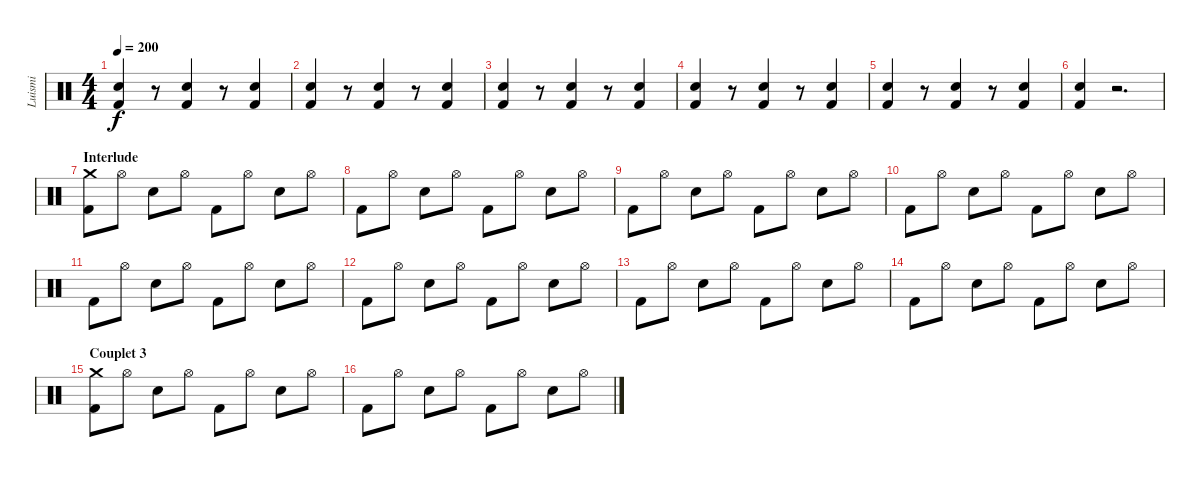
\track ("Luismi" "Luismi") {instrument percussion}
\staff {score}
\articulation defaults
\ts (4 4)
\tempo 200
\clef neutral
\ks c
("Snare (hit) 2" "Kick (hit) 2").4{dy f} r.8 ("Snare (hit) 2" "Kick (hit) 2").4 r.8 ("Snare (hit) 2" "Kick (hit) 2").4 |
("Snare (hit) 2" "Kick (hit) 2").4 r.8 ("Snare (hit) 2" "Kick (hit) 2").4 r.8 ("Snare (hit) 2" "Kick (hit) 2").4 |
("Snare (hit) 2" "Kick (hit) 2").4 r.8 ("Snare (hit) 2" "Kick (hit) 2").4 r.8 ("Snare (hit) 2" "Kick (hit) 2").4 |
("Snare (hit) 2" "Kick (hit) 2").4 r.8 ("Snare (hit) 2" "Kick (hit) 2").4 r.8 ("Snare (hit) 2" "Kick (hit) 2").4 |
("Snare (hit) 2" "Kick (hit) 2").4 r.8 ("Snare (hit) 2" "Kick (hit) 2").4 r.8 ("Snare (hit) 2" "Kick (hit) 2").4 |
("Snare (hit) 2" "Kick (hit) 2").4 r.2{d} |
\section ("" "Interlude")
("Crash medium (hit)" "Kick (hit) 2").8 "Hi-Hat (open)".8 "Snare (hit) 2".8 "Hi-Hat (open)".8 "Kick (hit) 2".8 "Hi-Hat (open)".8 "Snare (hit) 2".8 "Hi-Hat (open)".8 |
"Kick (hit) 2".8 "Hi-Hat (open)".8 "Snare (hit) 2".8 "Hi-Hat (open)".8 "Kick (hit) 2".8 "Hi-Hat (open)".8 "Snare (hit) 2".8 "Hi-Hat (open)".8 |
"Kick (hit) 2".8 "Hi-Hat (open)".8 "Snare (hit) 2".8 "Hi-Hat (open)".8 "Kick (hit) 2".8 "Hi-Hat (open)".8 "Snare (hit) 2".8 "Hi-Hat (open)".8 |
"Kick (hit) 2".8 "Hi-Hat (open)".8 "Snare (hit) 2".8 "Hi-Hat (open)".8 "Kick (hit) 2".8 "Hi-Hat (open)".8 "Snare (hit) 2".8 "Hi-Hat (open)".8 |
"Kick (hit) 2".8 "Hi-Hat (open)".8 "Snare (hit) 2".8 "Hi-Hat (open)".8 "Kick (hit) 2".8 "Hi-Hat (open)".8 "Snare (hit) 2".8 "Hi-Hat (open)".8 |
"Kick (hit) 2".8 "Hi-Hat (open)".8 "Snare (hit) 2".8 "Hi-Hat (open)".8 "Kick (hit) 2".8 "Hi-Hat (open)".8 "Snare (hit) 2".8 "Hi-Hat (open)".8 |
"Kick (hit) 2".8 "Hi-Hat (open)".8 "Snare (hit) 2".8 "Hi-Hat (open)".8 "Kick (hit) 2".8 "Hi-Hat (open)".8 "Snare (hit) 2".8 "Hi-Hat (open)".8 |
"Kick (hit) 2".8 "Hi-Hat (open)".8 "Snare (hit) 2".8 "Hi-Hat (open)".8 "Kick (hit) 2".8 "Hi-Hat (open)".8 "Snare (hit) 2".8 "Hi-Hat (open)".8 |
\section ("" "Couplet 3")
("Crash medium (hit)" "Kick (hit) 2").8 "Hi-Hat (open)".8 "Snare (hit) 2".8 "Hi-Hat (open)".8 "Kick (hit) 2".8 "Hi-Hat (open)".8 "Snare (hit) 2".8 "Hi-Hat (open)".8 |
"Kick (hit) 2".8 "Hi-Hat (open)".8 "Snare (hit) 2".8 "Hi-Hat (open)".8 "Kick (hit) 2".8 "Hi-Hat (open)".8 "Snare (hit) 2".8 "Hi-Hat (open)".8
